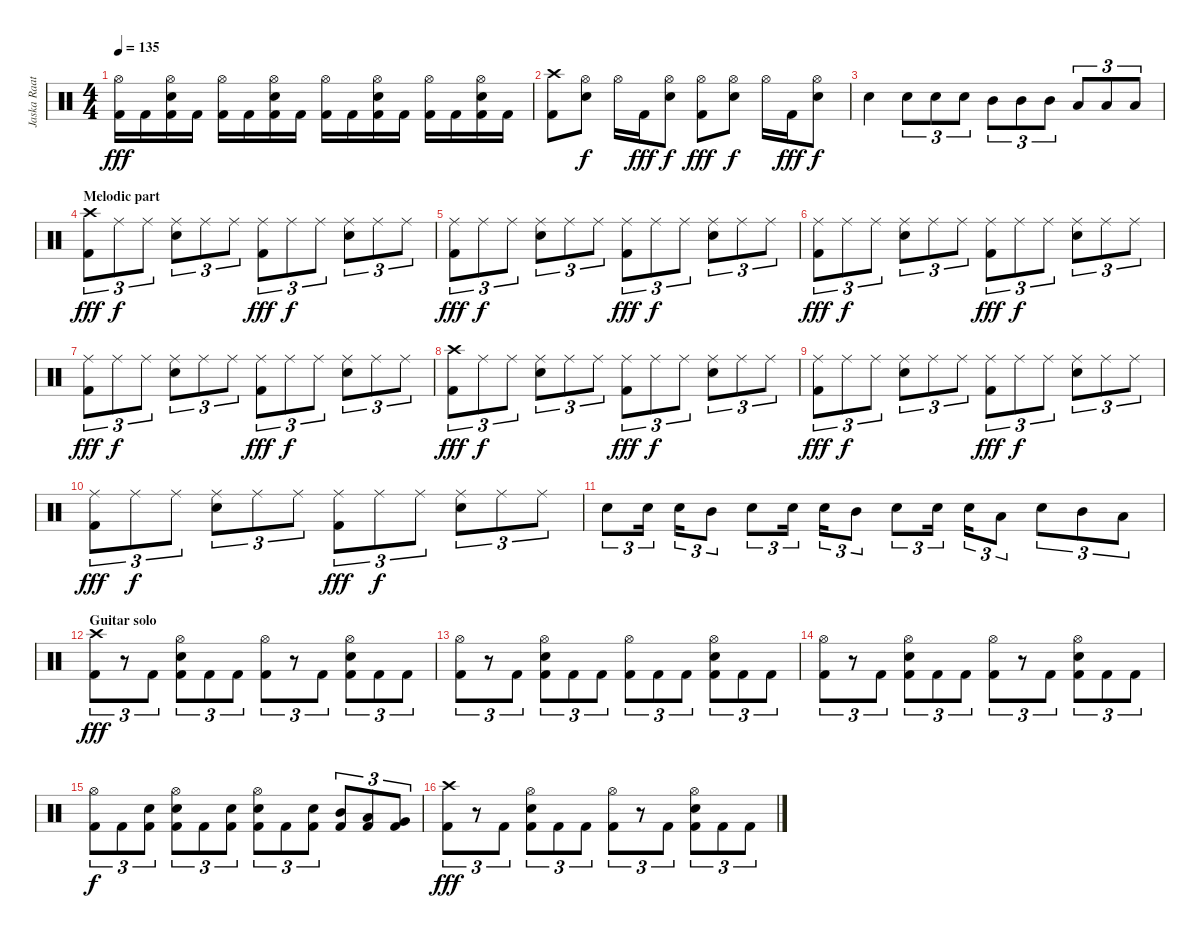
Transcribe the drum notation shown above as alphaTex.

\track ("Jaska Raatikainen" "Jaska Raat") {instrument percussion}
\staff {score}
\articulation defaults
\ts (4 4)
\tempo 135
\clef neutral
\ks c
("Hi-Hat (open)" "Kick (hit) 2").16{dy fff} "Kick (hit) 2".16 ("Hi-Hat (open)" "Electric Snare (hit)" "Kick (hit) 2").16 "Kick (hit) 2".16 ("Hi-Hat (open)" "Kick (hit) 2").16 "Kick (hit) 2".16 ("Hi-Hat (open)" "Electric Snare (hit)" "Kick (hit) 2").16 "Kick (hit) 2".16 ("Hi-Hat (open)" "Kick (hit) 2").16 "Kick (hit) 2".16 ("Hi-Hat (open)" "Electric Snare (hit)" "Kick (hit) 2").16 "Kick (hit) 2".16 ("Hi-Hat (open)" "Kick (hit) 2").16 "Kick (hit) 2".16 ("Hi-Hat (open)" "Electric Snare (hit)" "Kick (hit) 2").16 "Kick (hit) 2".16 |
("Crash high (hit)" "Kick (hit) 2").8 ("Hi-Hat (open)" "Electric Snare (hit)").8{dy f} "Hi-Hat (open)".16 "Kick (hit) 2".16{dy fff} ("Hi-Hat (open)" "Electric Snare (hit)").8{dy f} ("Hi-Hat (open)" "Kick (hit) 2").8{dy fff} ("Hi-Hat (open)" "Electric Snare (hit)").8{dy f} "Hi-Hat (open)".16 "Kick (hit) 2".16{dy fff} ("Hi-Hat (open)" "Electric Snare (hit)").8{dy f} |
"Electric Snare (hit)".4 "Electric Snare (hit)".8{tu (3 2)} "Electric Snare (hit)".8{tu (3 2)} "Electric Snare (hit)".8{tu (3 2)} "Mid Tom (hit)".8{tu (3 2)} "Mid Tom (hit)".8{tu (3 2)} "Mid Tom (hit)".8{tu (3 2)} "Low Tom (hit)".8{tu (3 2)} "Low Tom (hit)".8{tu (3 2)} "Low Tom (hit)".8{tu (3 2)} |
\section ("" "Melodic part")
("Crash high (hit)" "Kick (hit) 2").8{tu (3 2) dy fff} "Ride (middle)".8{tu (3 2) dy f} "Ride (middle)".8{tu (3 2)} ("Ride (middle)" "Electric Snare (hit)").8{tu (3 2)} "Ride (middle)".8{tu (3 2)} "Ride (middle)".8{tu (3 2)} ("Ride (middle)" "Kick (hit) 2").8{tu (3 2) dy fff} "Ride (middle)".8{tu (3 2) dy f} "Ride (middle)".8{tu (3 2)} ("Ride (middle)" "Electric Snare (hit)").8{tu (3 2)} "Ride (middle)".8{tu (3 2)} "Ride (middle)".8{tu (3 2)} |
("Ride (middle)" "Kick (hit) 2").8{tu (3 2) dy fff} "Ride (middle)".8{tu (3 2) dy f} "Ride (middle)".8{tu (3 2)} ("Ride (middle)" "Electric Snare (hit)").8{tu (3 2)} "Ride (middle)".8{tu (3 2)} "Ride (middle)".8{tu (3 2)} ("Ride (middle)" "Kick (hit) 2").8{tu (3 2) dy fff} "Ride (middle)".8{tu (3 2) dy f} "Ride (middle)".8{tu (3 2)} ("Ride (middle)" "Electric Snare (hit)").8{tu (3 2)} "Ride (middle)".8{tu (3 2)} "Ride (middle)".8{tu (3 2)} |
("Ride (middle)" "Kick (hit) 2").8{tu (3 2) dy fff} "Ride (middle)".8{tu (3 2) dy f} "Ride (middle)".8{tu (3 2)} ("Ride (middle)" "Electric Snare (hit)").8{tu (3 2)} "Ride (middle)".8{tu (3 2)} "Ride (middle)".8{tu (3 2)} ("Ride (middle)" "Kick (hit) 2").8{tu (3 2) dy fff} "Ride (middle)".8{tu (3 2) dy f} "Ride (middle)".8{tu (3 2)} ("Ride (middle)" "Electric Snare (hit)").8{tu (3 2)} "Ride (middle)".8{tu (3 2)} "Ride (middle)".8{tu (3 2)} |
("Ride (middle)" "Kick (hit) 2").8{tu (3 2) dy fff} "Ride (middle)".8{tu (3 2) dy f} "Ride (middle)".8{tu (3 2)} ("Ride (middle)" "Electric Snare (hit)").8{tu (3 2)} "Ride (middle)".8{tu (3 2)} "Ride (middle)".8{tu (3 2)} ("Ride (middle)" "Kick (hit) 2").8{tu (3 2) dy fff} "Ride (middle)".8{tu (3 2) dy f} "Ride (middle)".8{tu (3 2)} ("Ride (middle)" "Electric Snare (hit)").8{tu (3 2)} "Ride (middle)".8{tu (3 2)} "Ride (middle)".8{tu (3 2)} |
("Crash high (hit)" "Kick (hit) 2").8{tu (3 2) dy fff} "Ride (middle)".8{tu (3 2) dy f} "Ride (middle)".8{tu (3 2)} ("Ride (middle)" "Electric Snare (hit)").8{tu (3 2)} "Ride (middle)".8{tu (3 2)} "Ride (middle)".8{tu (3 2)} ("Ride (middle)" "Kick (hit) 2").8{tu (3 2) dy fff} "Ride (middle)".8{tu (3 2) dy f} "Ride (middle)".8{tu (3 2)} ("Ride (middle)" "Electric Snare (hit)").8{tu (3 2)} "Ride (middle)".8{tu (3 2)} "Ride (middle)".8{tu (3 2)} |
("Ride (middle)" "Kick (hit) 2").8{tu (3 2) dy fff} "Ride (middle)".8{tu (3 2) dy f} "Ride (middle)".8{tu (3 2)} ("Ride (middle)" "Electric Snare (hit)").8{tu (3 2)} "Ride (middle)".8{tu (3 2)} "Ride (middle)".8{tu (3 2)} ("Ride (middle)" "Kick (hit) 2").8{tu (3 2) dy fff} "Ride (middle)".8{tu (3 2) dy f} "Ride (middle)".8{tu (3 2)} ("Ride (middle)" "Electric Snare (hit)").8{tu (3 2)} "Ride (middle)".8{tu (3 2)} "Ride (middle)".8{tu (3 2)} |
("Ride (middle)" "Kick (hit) 2").8{tu (3 2) dy fff} "Ride (middle)".8{tu (3 2) dy f} "Ride (middle)".8{tu (3 2)} ("Ride (middle)" "Electric Snare (hit)").8{tu (3 2)} "Ride (middle)".8{tu (3 2)} "Ride (middle)".8{tu (3 2)} ("Ride (middle)" "Kick (hit) 2").8{tu (3 2) dy fff} "Ride (middle)".8{tu (3 2) dy f} "Ride (middle)".8{tu (3 2)} ("Ride (middle)" "Electric Snare (hit)").8{tu (3 2)} "Ride (middle)".8{tu (3 2)} "Ride (middle)".8{tu (3 2)} |
"Electric Snare (hit)".8{tu (3 2)} "Electric Snare (hit)".16{tu (3 2)} "Electric Snare (hit)".16{tu (3 2)} "Mid Tom (hit)".8{tu (3 2)} "Electric Snare (hit)".8{tu (3 2)} "Electric Snare (hit)".16{tu (3 2)} "Electric Snare (hit)".16{tu (3 2)} "Mid Tom (hit)".8{tu (3 2)} "Electric Snare (hit)".8{tu (3 2)} "Electric Snare (hit)".16{tu (3 2)} "Electric Snare (hit)".16{tu (3 2)} "Low Tom (hit)".8{tu (3 2)} "Electric Snare (hit)".8{tu (3 2)} "Mid Tom (hit)".8{tu (3 2)} "Low Tom (hit)".8{tu (3 2)} |
\section ("" "Guitar solo")
("Crash high (hit)" "Kick (hit) 2").8{tu (3 2) dy fff} r.8{tu (3 2)} "Kick (hit) 2".8{tu (3 2)} ("Hi-Hat (open)" "Electric Snare (hit)" "Kick (hit) 2").8{tu (3 2)} "Kick (hit) 2".8{tu (3 2)} "Kick (hit) 2".8{tu (3 2)} ("Hi-Hat (open)" "Kick (hit) 2").8{tu (3 2)} r.8{tu (3 2)} "Kick (hit) 2".8{tu (3 2)} ("Hi-Hat (open)" "Electric Snare (hit)" "Kick (hit) 2").8{tu (3 2)} "Kick (hit) 2".8{tu (3 2)} "Kick (hit) 2".8{tu (3 2)} |
("Hi-Hat (open)" "Kick (hit) 2").8{tu (3 2)} r.8{tu (3 2)} "Kick (hit) 2".8{tu (3 2)} ("Hi-Hat (open)" "Electric Snare (hit)" "Kick (hit) 2").8{tu (3 2)} "Kick (hit) 2".8{tu (3 2)} "Kick (hit) 2".8{tu (3 2)} ("Hi-Hat (open)" "Kick (hit) 2").8{tu (3 2)} "Kick (hit) 2".8{tu (3 2)} "Kick (hit) 2".8{tu (3 2)} ("Hi-Hat (open)" "Electric Snare (hit)" "Kick (hit) 2").8{tu (3 2)} "Kick (hit) 2".8{tu (3 2)} "Kick (hit) 2".8{tu (3 2)} |
("Hi-Hat (open)" "Kick (hit) 2").8{tu (3 2)} r.8{tu (3 2)} "Kick (hit) 2".8{tu (3 2)} ("Hi-Hat (open)" "Electric Snare (hit)" "Kick (hit) 2").8{tu (3 2)} "Kick (hit) 2".8{tu (3 2)} "Kick (hit) 2".8{tu (3 2)} ("Hi-Hat (open)" "Kick (hit) 2").8{tu (3 2)} r.8{tu (3 2)} "Kick (hit) 2".8{tu (3 2)} ("Hi-Hat (open)" "Electric Snare (hit)" "Kick (hit) 2").8{tu (3 2)} "Kick (hit) 2".8{tu (3 2)} "Kick (hit) 2".8{tu (3 2)} |
("Hi-Hat (open)" "Kick (hit) 2").8{tu (3 2) dy f} "Kick (hit) 2".8{tu (3 2)} ("Electric Snare (hit)" "Kick (hit) 2").8{tu (3 2)} ("Hi-Hat (open)" "Electric Snare (hit)" "Kick (hit) 2").8{tu (3 2)} "Kick (hit) 2".8{tu (3 2)} ("Electric Snare (hit)" "Kick (hit) 2").8{tu (3 2)} ("Hi-Hat (open)" "Electric Snare (hit)" "Kick (hit) 2").8{tu (3 2)} "Kick (hit) 2".8{tu (3 2)} ("Electric Snare (hit)" "Kick (hit) 2").8{tu (3 2)} ("Mid Tom (hit)" "Kick (hit) 2").8{tu (3 2)} ("Low Tom (hit)" "Kick (hit) 2").8{tu (3 2)} ("Very Low Tom (hit)" "Kick (hit) 2").8{tu (3 2)} |
("Crash high (hit)" "Kick (hit) 2").8{tu (3 2) dy fff} r.8{tu (3 2)} "Kick (hit) 2".8{tu (3 2)} ("Hi-Hat (open)" "Electric Snare (hit)" "Kick (hit) 2").8{tu (3 2)} "Kick (hit) 2".8{tu (3 2)} "Kick (hit) 2".8{tu (3 2)} ("Hi-Hat (open)" "Kick (hit) 2").8{tu (3 2)} r.8{tu (3 2)} "Kick (hit) 2".8{tu (3 2)} ("Hi-Hat (open)" "Electric Snare (hit)" "Kick (hit) 2").8{tu (3 2)} "Kick (hit) 2".8{tu (3 2)} "Kick (hit) 2".8{tu (3 2)}
